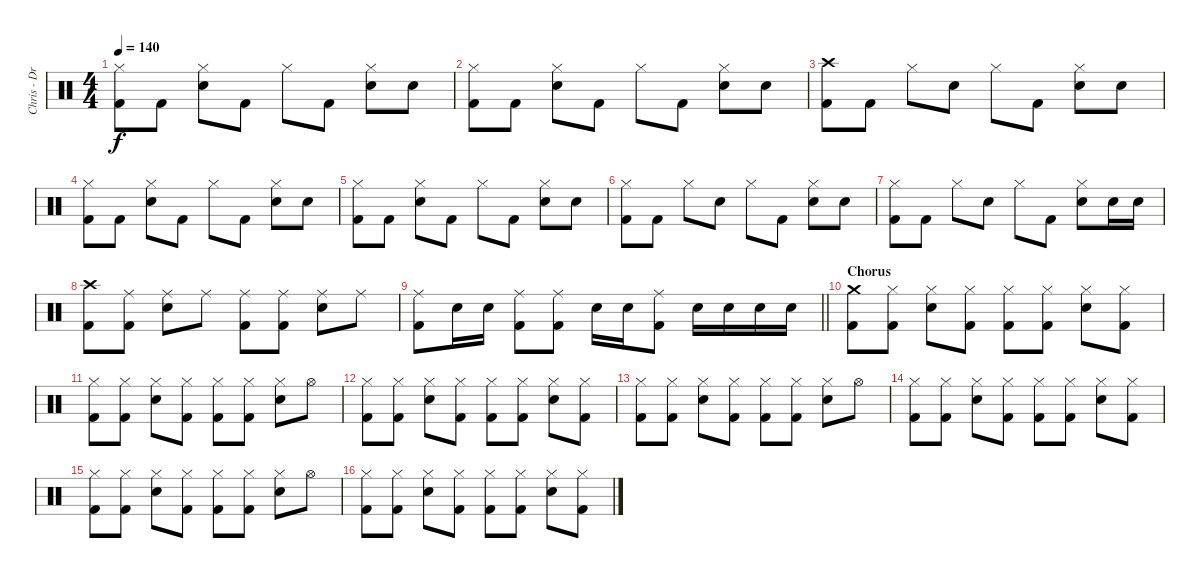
\track ("Chris - Drums" "Chris - Dr") {instrument percussion}
\staff {score}
\articulation defaults
\ts (4 4)
\tempo 140
\clef neutral
\ks c
("Hi-Hat (closed)" "Kick (hit) 2").8{dy f} "Kick (hit) 2".8 ("Hi-Hat (closed)" "Electric Snare (hit)").8 "Kick (hit) 2".8 "Hi-Hat (closed)".8 "Kick (hit) 2".8 ("Hi-Hat (closed)" "Electric Snare (hit)").8 "Electric Snare (hit)".8 |
("Hi-Hat (closed)" "Kick (hit) 2").8 "Kick (hit) 2".8 ("Hi-Hat (closed)" "Electric Snare (hit)").8 "Kick (hit) 2".8 "Hi-Hat (closed)".8 "Kick (hit) 2".8 ("Hi-Hat (closed)" "Electric Snare (hit)").8 "Electric Snare (hit)".8 |
("Crash high (hit)" "Kick (hit) 2").8 "Kick (hit) 2".8 "Hi-Hat (closed)".8 "Electric Snare (hit)".8 "Hi-Hat (closed)".8 "Kick (hit) 2".8 ("Hi-Hat (closed)" "Electric Snare (hit)").8 "Electric Snare (hit)".8 |
("Hi-Hat (closed)" "Kick (hit) 2").8 "Kick (hit) 2".8 ("Hi-Hat (closed)" "Electric Snare (hit)").8 "Kick (hit) 2".8 "Hi-Hat (closed)".8 "Kick (hit) 2".8 ("Hi-Hat (closed)" "Electric Snare (hit)").8 "Electric Snare (hit)".8 |
("Hi-Hat (closed)" "Kick (hit) 2").8 "Kick (hit) 2".8 ("Hi-Hat (closed)" "Electric Snare (hit)").8 "Kick (hit) 2".8 "Hi-Hat (closed)".8 "Kick (hit) 2".8 ("Hi-Hat (closed)" "Electric Snare (hit)").8 "Electric Snare (hit)".8 |
("Hi-Hat (closed)" "Kick (hit) 2").8 "Kick (hit) 2".8 "Hi-Hat (closed)".8 "Electric Snare (hit)".8 "Hi-Hat (closed)".8 "Kick (hit) 2".8 ("Hi-Hat (closed)" "Electric Snare (hit)").8 "Electric Snare (hit)".8 |
("Hi-Hat (closed)" "Kick (hit) 2").8 "Kick (hit) 2".8 "Hi-Hat (closed)".8 "Electric Snare (hit)".8 "Hi-Hat (closed)".8 "Kick (hit) 2".8 ("Hi-Hat (closed)" "Electric Snare (hit)").8 "Electric Snare (hit)".16 "Electric Snare (hit)".16 |
("Crash high (hit)" "Kick (hit) 2").8 ("Ride (middle)" "Kick (hit) 2").8 ("Ride (middle)" "Electric Snare (hit)").8 "Ride (middle)".8 ("Ride (middle)" "Kick (hit) 2").8 ("Ride (middle)" "Kick (hit) 2").8 ("Ride (middle)" "Electric Snare (hit)").8 "Ride (middle)".8 |
\barLineRight lightlight
("Ride (middle)" "Kick (hit) 2").8 "Electric Snare (hit)".16 "Electric Snare (hit)".16 ("Ride (middle)" "Kick (hit) 2").8 ("Ride (middle)" "Kick (hit) 2").8 "Electric Snare (hit)".16 "Electric Snare (hit)".16 ("Ride (middle)" "Kick (hit) 2").8 "Electric Snare (hit)".16 "Electric Snare (hit)".16 "Electric Snare (hit)".16 "Electric Snare (hit)".16 |
\section ("" "Chorus")
("Crash medium (hit)" "Kick (hit) 2").8 ("Hi-Hat (closed)" "Kick (hit) 2").8 ("Hi-Hat (closed)" "Electric Snare (hit)").8 ("Hi-Hat (closed)" "Kick (hit) 2").8 ("Hi-Hat (closed)" "Kick (hit) 2").8 ("Hi-Hat (closed)" "Kick (hit) 2").8 ("Hi-Hat (closed)" "Electric Snare (hit)").8 ("Hi-Hat (closed)" "Kick (hit) 2").8 |
("Hi-Hat (closed)" "Kick (hit) 2").8 ("Hi-Hat (closed)" "Kick (hit) 2").8 ("Hi-Hat (closed)" "Electric Snare (hit)").8 ("Hi-Hat (closed)" "Kick (hit) 2").8 ("Hi-Hat (closed)" "Kick (hit) 2").8 ("Hi-Hat (closed)" "Kick (hit) 2").8 ("Hi-Hat (closed)" "Electric Snare (hit)").8 "Hi-Hat (open)".8 |
("Hi-Hat (closed)" "Kick (hit) 2").8 ("Hi-Hat (closed)" "Kick (hit) 2").8 ("Hi-Hat (closed)" "Electric Snare (hit)").8 ("Hi-Hat (closed)" "Kick (hit) 2").8 ("Hi-Hat (closed)" "Kick (hit) 2").8 ("Hi-Hat (closed)" "Kick (hit) 2").8 ("Hi-Hat (closed)" "Electric Snare (hit)").8 ("Hi-Hat (closed)" "Kick (hit) 2").8 |
("Hi-Hat (closed)" "Kick (hit) 2").8 ("Hi-Hat (closed)" "Kick (hit) 2").8 ("Hi-Hat (closed)" "Electric Snare (hit)").8 ("Hi-Hat (closed)" "Kick (hit) 2").8 ("Hi-Hat (closed)" "Kick (hit) 2").8 ("Hi-Hat (closed)" "Kick (hit) 2").8 ("Hi-Hat (closed)" "Electric Snare (hit)").8 "Hi-Hat (open)".8 |
("Hi-Hat (closed)" "Kick (hit) 2").8 ("Hi-Hat (closed)" "Kick (hit) 2").8 ("Hi-Hat (closed)" "Electric Snare (hit)").8 ("Hi-Hat (closed)" "Kick (hit) 2").8 ("Hi-Hat (closed)" "Kick (hit) 2").8 ("Hi-Hat (closed)" "Kick (hit) 2").8 ("Hi-Hat (closed)" "Electric Snare (hit)").8 ("Hi-Hat (closed)" "Kick (hit) 2").8 |
("Hi-Hat (closed)" "Kick (hit) 2").8 ("Hi-Hat (closed)" "Kick (hit) 2").8 ("Hi-Hat (closed)" "Electric Snare (hit)").8 ("Hi-Hat (closed)" "Kick (hit) 2").8 ("Hi-Hat (closed)" "Kick (hit) 2").8 ("Hi-Hat (closed)" "Kick (hit) 2").8 ("Hi-Hat (closed)" "Electric Snare (hit)").8 "Hi-Hat (open)".8 |
("Hi-Hat (closed)" "Kick (hit) 2").8 ("Hi-Hat (closed)" "Kick (hit) 2").8 ("Hi-Hat (closed)" "Electric Snare (hit)").8 ("Hi-Hat (closed)" "Kick (hit) 2").8 ("Hi-Hat (closed)" "Kick (hit) 2").8 ("Hi-Hat (closed)" "Kick (hit) 2").8 ("Hi-Hat (closed)" "Electric Snare (hit)").8 ("Hi-Hat (closed)" "Kick (hit) 2").8
